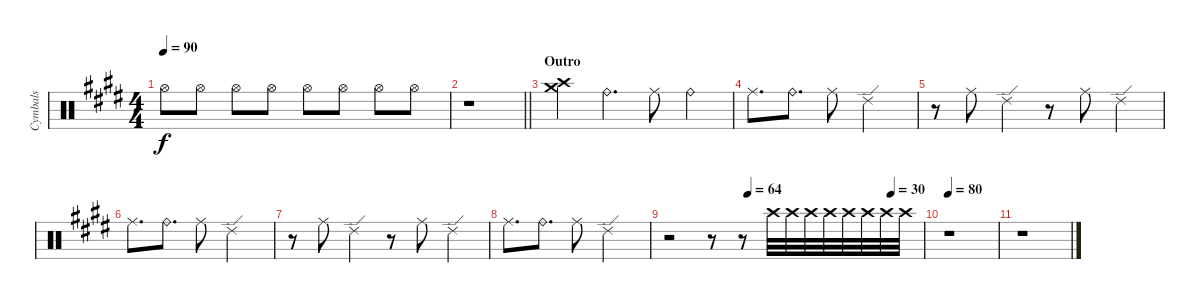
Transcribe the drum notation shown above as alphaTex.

\track ("Cymbals" "Cymbals") {instrument percussion}
\staff {score}
\articulation defaults
\ts (4 4)
\tempo 90
\clef neutral
\ks e "Hi-Hat (open)".8{dy f} "Hi-Hat (open)".8 "Hi-Hat (open)".8 "Hi-Hat (open)".8 "Hi-Hat (open)".8 "Hi-Hat (open)".8 "Hi-Hat (open)".8 "Hi-Hat (open)".8
|
\barLineRight lightlight
r.1 |
\section ("" "Outro")
("Crash medium (hit)" "Crash high (hit)").4 "Ride (bell)".4{d} "Ride (middle)".8 "Ride (bell)".4 |
"Ride (middle)".8{d} "Ride (bell)".8{d} "Ride (middle)".8 "Ride (edge) 2".2 |
r.8 "Ride (middle)".8 "Ride (edge) 2".4 r.8 "Ride (middle)".8 "Ride (edge) 2".4 |
"Ride (middle)".8{d} "Ride (bell)".8{d} "Ride (middle)".8 "Ride (edge) 2".2 |
r.8 "Ride (middle)".8 "Ride (edge) 2".4 r.8 "Ride (middle)".8 "Ride (edge) 2".4 |
"Ride (middle)".8{d} "Ride (bell)".8{d} "Ride (middle)".8 "Ride (edge) 2".2 |
\tempo (64 0.3125)
\tempo (30 0.875)
r.2 r.8 r.8{volume 2} "Crash high (hit)".32{volume 16} "Crash high (hit)".32 "Crash high (hit)".32 "Crash high (hit)".32 "Crash high (hit)".32 "Crash high (hit)".32 "Crash high (hit)".32 "Crash high (hit)".32 |
\tempo 80
r.1 |
r.1
